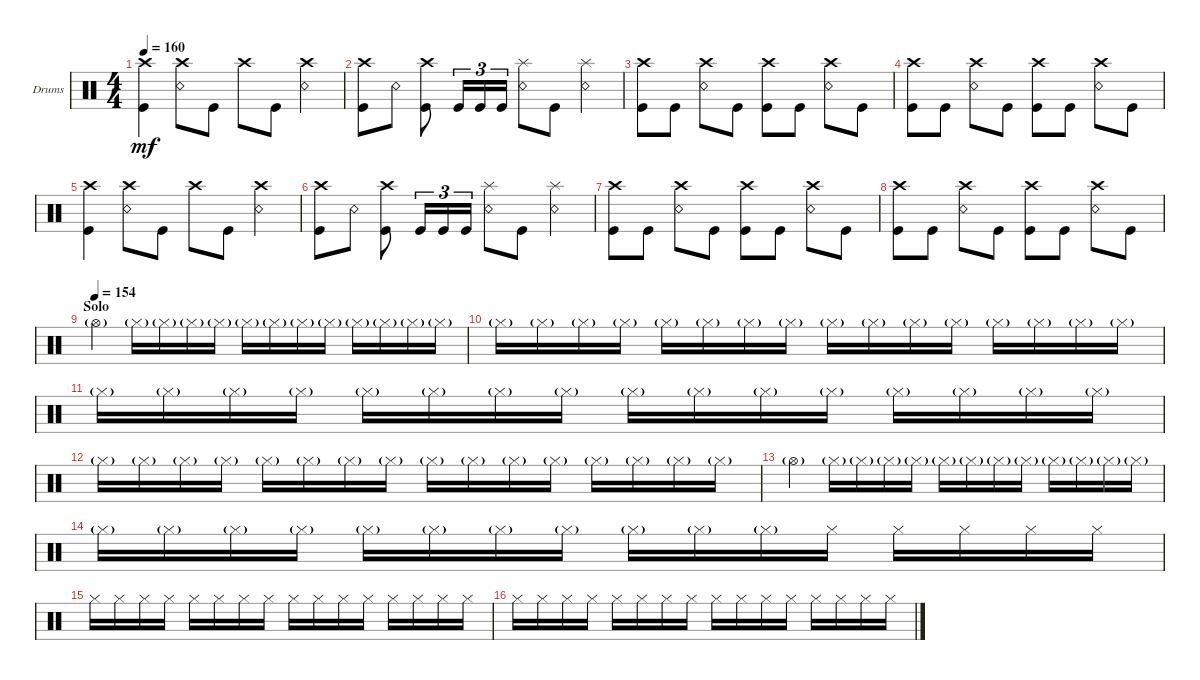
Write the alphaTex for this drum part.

\defaultSystemsLayout 4
\bracketExtendMode groupsimilarinstruments
\firstSystemTrackNameOrientation horizontal
\otherSystemsTrackNameOrientation horizontal
\track ("Drumkit" "Drums") {instrument percussion}
\staff {score}
\articulation defaults
\ts (4 4)
\tempo 160
\clef neutral
\ks c
("Kick (hit)" "Crash high (hit)").4{dy mf} ("Snare (rim shot)" "Crash high (hit)").8 "Kick (hit)".8 "Crash high (hit)".8 "Kick (hit)".8 ("Snare (rim shot)" "Crash high (hit)").4 |
("Kick (hit)" "Crash high (hit)").8 "Snare (rim shot)".8 ("Kick (hit)" "Crash high (hit)").8 "Kick (hit)".16{tu (3 2)} "Kick (hit)".16{tu (3 2)} "Kick (hit)".16{tu (3 2)} ("Snare (rim shot)" "Splash (hit)").8 "Kick (hit)".8 ("Snare (rim shot)" "Splash (hit)").4 |
("Kick (hit)" "Crash high (hit)").8 "Kick (hit)".8 ("Snare (rim shot)" "Crash high (hit)").8 "Kick (hit)".8 ("Kick (hit)" "Crash high (hit)").8 "Kick (hit)".8 ("Snare (rim shot)" "Crash high (hit)").8 "Kick (hit)".8 |
("Kick (hit)" "Crash high (hit)").8 "Kick (hit)".8 ("Snare (rim shot)" "Crash high (hit)").8 "Kick (hit)".8 ("Kick (hit)" "Crash high (hit)").8 "Kick (hit)".8 ("Snare (rim shot)" "Crash high (hit)").8 "Kick (hit)".8 |
("Kick (hit)" "Crash high (hit)").4 ("Snare (rim shot)" "Crash high (hit)").8 "Kick (hit)".8 "Crash high (hit)".8 "Kick (hit)".8 ("Snare (rim shot)" "Crash high (hit)").4 |
("Kick (hit)" "Crash high (hit)").8 "Snare (rim shot)".8 ("Kick (hit)" "Crash high (hit)").8 "Kick (hit)".16{tu (3 2)} "Kick (hit)".16{tu (3 2)} "Kick (hit)".16{tu (3 2)} ("Snare (rim shot)" "Splash (hit)").8 "Kick (hit)".8 ("Snare (rim shot)" "Splash (hit)").4 |
("Kick (hit)" "Crash high (hit)").8 "Kick (hit)".8 ("Snare (rim shot)" "Crash high (hit)").8 "Kick (hit)".8 ("Kick (hit)" "Crash high (hit)").8 "Kick (hit)".8 ("Snare (rim shot)" "Crash high (hit)").8 "Kick (hit)".8 |
("Kick (hit)" "Crash high (hit)").8 "Kick (hit)".8 ("Snare (rim shot)" "Crash high (hit)").8 "Kick (hit)".8 ("Kick (hit)" "Crash high (hit)").8 "Kick (hit)".8 ("Snare (rim shot)" "Crash high (hit)").8 "Kick (hit)".8 |
\section ("" "Solo")
\tempo (154)
"Hi-Hat (open)"{g}.4 "Hi-Hat (closed)"{g}.16 "Hi-Hat (closed)"{g}.16 "Hi-Hat (closed)"{g}.16 "Hi-Hat (closed)"{g}.16 "Hi-Hat (closed)"{g}.16 "Hi-Hat (closed)"{g}.16 "Hi-Hat (closed)"{g}.16 "Hi-Hat (closed)"{g}.16 "Hi-Hat (closed)"{g}.16 "Hi-Hat (closed)"{g}.16 "Hi-Hat (closed)"{g}.16 "Hi-Hat (closed)"{g}.16 |
"Hi-Hat (closed)"{g}.16 "Hi-Hat (closed)"{g}.16 "Hi-Hat (closed)"{g}.16 "Hi-Hat (closed)"{g}.16 "Hi-Hat (closed)"{g}.16 "Hi-Hat (closed)"{g}.16 "Hi-Hat (closed)"{g}.16 "Hi-Hat (closed)"{g}.16 "Hi-Hat (closed)"{g}.16 "Hi-Hat (closed)"{g}.16 "Hi-Hat (closed)"{g}.16 "Hi-Hat (closed)"{g}.16 "Hi-Hat (closed)"{g}.16 "Hi-Hat (closed)"{g}.16 "Hi-Hat (closed)"{g}.16 "Hi-Hat (closed)"{g}.16 |
"Hi-Hat (closed)"{g}.16 "Hi-Hat (closed)"{g}.16 "Hi-Hat (closed)"{g}.16 "Hi-Hat (closed)"{g}.16 "Hi-Hat (closed)"{g}.16 "Hi-Hat (closed)"{g}.16 "Hi-Hat (closed)"{g}.16 "Hi-Hat (closed)"{g}.16 "Hi-Hat (closed)"{g}.16 "Hi-Hat (closed)"{g}.16 "Hi-Hat (closed)"{g}.16 "Hi-Hat (closed)"{g}.16 "Hi-Hat (closed)"{g}.16 "Hi-Hat (closed)"{g}.16 "Hi-Hat (closed)"{g}.16 "Hi-Hat (closed)"{g}.16 |
"Hi-Hat (closed)"{g}.16 "Hi-Hat (closed)"{g}.16 "Hi-Hat (closed)"{g}.16 "Hi-Hat (closed)"{g}.16 "Hi-Hat (closed)"{g}.16 "Hi-Hat (closed)"{g}.16 "Hi-Hat (closed)"{g}.16 "Hi-Hat (closed)"{g}.16 "Hi-Hat (closed)"{g}.16 "Hi-Hat (closed)"{g}.16 "Hi-Hat (closed)"{g}.16 "Hi-Hat (closed)"{g}.16 "Hi-Hat (closed)"{g}.16 "Hi-Hat (closed)"{g}.16 "Hi-Hat (closed)"{g}.16 "Hi-Hat (closed)"{g}.16 |
"Hi-Hat (open)"{g}.4 "Hi-Hat (closed)"{g}.16 "Hi-Hat (closed)"{g}.16 "Hi-Hat (closed)"{g}.16 "Hi-Hat (closed)"{g}.16 "Hi-Hat (closed)"{g}.16 "Hi-Hat (closed)"{g}.16 "Hi-Hat (closed)"{g}.16 "Hi-Hat (closed)"{g}.16 "Hi-Hat (closed)"{g}.16 "Hi-Hat (closed)"{g}.16 "Hi-Hat (closed)"{g}.16 "Hi-Hat (closed)"{g}.16 |
"Hi-Hat (closed)"{g}.16 "Hi-Hat (closed)"{g}.16 "Hi-Hat (closed)"{g}.16 "Hi-Hat (closed)"{g}.16 "Hi-Hat (closed)"{g}.16 "Hi-Hat (closed)"{g}.16 "Hi-Hat (closed)"{g}.16 "Hi-Hat (closed)"{g}.16 "Hi-Hat (closed)"{g}.16 "Hi-Hat (closed)"{g}.16 "Hi-Hat (closed)"{g}.16 "Hi-Hat (closed)".16 "Hi-Hat (closed)".16 "Hi-Hat (closed)".16 "Hi-Hat (closed)".16 "Hi-Hat (closed)".16 |
"Hi-Hat (closed)".16 "Hi-Hat (closed)".16 "Hi-Hat (closed)".16 "Hi-Hat (closed)".16 "Hi-Hat (closed)".16 "Hi-Hat (closed)".16 "Hi-Hat (closed)".16 "Hi-Hat (closed)".16 "Hi-Hat (closed)".16 "Hi-Hat (closed)".16 "Hi-Hat (closed)".16 "Hi-Hat (closed)".16 "Hi-Hat (closed)".16 "Hi-Hat (closed)".16 "Hi-Hat (closed)".16 "Hi-Hat (closed)".16 |
"Hi-Hat (closed)".16 "Hi-Hat (closed)".16 "Hi-Hat (closed)".16 "Hi-Hat (closed)".16 "Hi-Hat (closed)".16 "Hi-Hat (closed)".16 "Hi-Hat (closed)".16 "Hi-Hat (closed)".16 "Hi-Hat (closed)".16 "Hi-Hat (closed)".16 "Hi-Hat (closed)".16 "Hi-Hat (closed)".16 "Hi-Hat (closed)".16 "Hi-Hat (closed)".16 "Hi-Hat (closed)".16 "Hi-Hat (closed)".16
